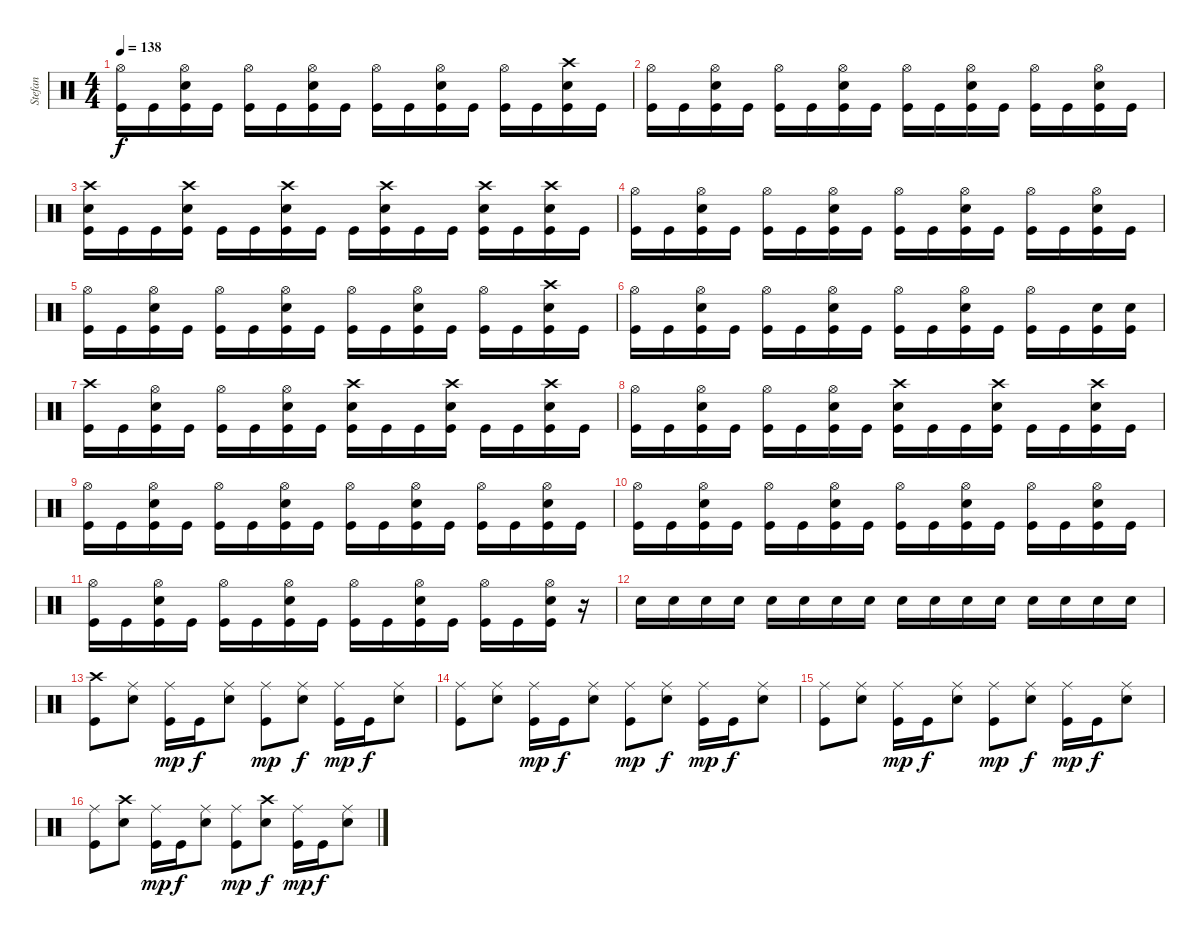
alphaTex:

\track ("Stefan" "Stefan") {instrument percussion}
\staff {score}
\articulation defaults
\ts (4 4)
\tempo 138
\clef neutral
\ks c
("Hi-Hat (open)" "Kick (hit)").16{dy f} "Kick (hit)".16 ("Hi-Hat (open)" "Snare (hit) 2" "Kick (hit)").16 "Kick (hit)".16 ("Hi-Hat (open)" "Kick (hit)").16 "Kick (hit)".16 ("Hi-Hat (open)" "Snare (hit) 2" "Kick (hit)").16 "Kick (hit)".16 ("Hi-Hat (open)" "Kick (hit)").16 "Kick (hit)".16 ("Hi-Hat (open)" "Snare (hit) 2" "Kick (hit)").16 "Kick (hit)".16 ("Hi-Hat (open)" "Kick (hit)").16 "Kick (hit)".16 ("Crash high (hit)" "Snare (hit) 2" "Kick (hit)").16 "Kick (hit)".16 |
("Hi-Hat (open)" "Kick (hit)").16 "Kick (hit)".16 ("Hi-Hat (open)" "Snare (hit) 2" "Kick (hit)").16 "Kick (hit)".16 ("Hi-Hat (open)" "Kick (hit)").16 "Kick (hit)".16 ("Hi-Hat (open)" "Snare (hit) 2" "Kick (hit)").16 "Kick (hit)".16 ("Hi-Hat (open)" "Kick (hit)").16 "Kick (hit)".16 ("Hi-Hat (open)" "Snare (hit) 2" "Kick (hit)").16 "Kick (hit)".16 ("Hi-Hat (open)" "Kick (hit)").16 "Kick (hit)".16 ("Hi-Hat (open)" "Snare (hit) 2" "Kick (hit)").16 "Kick (hit)".16 |
("Crash high (hit)" "Snare (hit) 2" "Kick (hit)").16 "Kick (hit)".16 "Kick (hit)".16 ("Crash high (hit)" "Snare (hit) 2" "Kick (hit)").16 "Kick (hit)".16 "Kick (hit)".16 ("Crash high (hit)" "Snare (hit) 2" "Kick (hit)").16 "Kick (hit)".16 "Kick (hit)".16 ("Crash high (hit)" "Snare (hit) 2" "Kick (hit)").16 "Kick (hit)".16 "Kick (hit)".16 ("Crash high (hit)" "Snare (hit) 2" "Kick (hit)").16 "Kick (hit)".16 ("Crash high (hit)" "Snare (hit) 2" "Kick (hit)").16 "Kick (hit)".16 |
("Hi-Hat (open)" "Kick (hit)").16 "Kick (hit)".16 ("Hi-Hat (open)" "Snare (hit) 2" "Kick (hit)").16 "Kick (hit)".16 ("Hi-Hat (open)" "Kick (hit)").16 "Kick (hit)".16 ("Hi-Hat (open)" "Snare (hit) 2" "Kick (hit)").16 "Kick (hit)".16 ("Hi-Hat (open)" "Kick (hit)").16 "Kick (hit)".16 ("Hi-Hat (open)" "Snare (hit) 2" "Kick (hit)").16 "Kick (hit)".16 ("Hi-Hat (open)" "Kick (hit)").16 "Kick (hit)".16 ("Hi-Hat (open)" "Snare (hit) 2" "Kick (hit)").16 "Kick (hit)".16 |
("Hi-Hat (open)" "Kick (hit)").16 "Kick (hit)".16 ("Hi-Hat (open)" "Snare (hit) 2" "Kick (hit)").16 "Kick (hit)".16 ("Hi-Hat (open)" "Kick (hit)").16 "Kick (hit)".16 ("Hi-Hat (open)" "Snare (hit) 2" "Kick (hit)").16 "Kick (hit)".16 ("Hi-Hat (open)" "Kick (hit)").16 "Kick (hit)".16 ("Hi-Hat (open)" "Snare (hit) 2" "Kick (hit)").16 "Kick (hit)".16 ("Hi-Hat (open)" "Kick (hit)").16 "Kick (hit)".16 ("Crash high (hit)" "Snare (hit) 2" "Kick (hit)").16 "Kick (hit)".16 |
("Hi-Hat (open)" "Kick (hit)").16 "Kick (hit)".16 ("Hi-Hat (open)" "Snare (hit) 2" "Kick (hit)").16 "Kick (hit)".16 ("Hi-Hat (open)" "Kick (hit)").16 "Kick (hit)".16 ("Hi-Hat (open)" "Snare (hit) 2" "Kick (hit)").16 "Kick (hit)".16 ("Hi-Hat (open)" "Kick (hit)").16 "Kick (hit)".16 ("Hi-Hat (open)" "Snare (hit) 2" "Kick (hit)").16 "Kick (hit)".16 ("Hi-Hat (open)" "Kick (hit)").16 "Kick (hit)".16 ("Snare (hit) 2" "Kick (hit)").16 ("Snare (hit) 2" "Kick (hit)").16 |
("Crash high (hit)" "Kick (hit)").16 "Kick (hit)".16 ("Hi-Hat (open)" "Snare (hit) 2" "Kick (hit)").16 "Kick (hit)".16 ("Hi-Hat (open)" "Kick (hit)").16 "Kick (hit)".16 ("Hi-Hat (open)" "Snare (hit) 2" "Kick (hit)").16 "Kick (hit)".16 ("Crash high (hit)" "Snare (hit) 2" "Kick (hit)").16 "Kick (hit)".16 "Kick (hit)".16 ("Crash high (hit)" "Snare (hit) 2" "Kick (hit)").16 "Kick (hit)".16 "Kick (hit)".16 ("Crash high (hit)" "Snare (hit) 2" "Kick (hit)").16 "Kick (hit)".16 |
("Hi-Hat (open)" "Kick (hit)").16 "Kick (hit)".16 ("Hi-Hat (open)" "Snare (hit) 2" "Kick (hit)").16 "Kick (hit)".16 ("Hi-Hat (open)" "Kick (hit)").16 "Kick (hit)".16 ("Hi-Hat (open)" "Snare (hit) 2" "Kick (hit)").16 "Kick (hit)".16 ("Crash high (hit)" "Snare (hit) 2" "Kick (hit)").16 "Kick (hit)".16 "Kick (hit)".16 ("Crash high (hit)" "Snare (hit) 2" "Kick (hit)").16 "Kick (hit)".16 "Kick (hit)".16 ("Crash high (hit)" "Snare (hit) 2" "Kick (hit)").16 "Kick (hit)".16 |
("Hi-Hat (open)" "Kick (hit)").16 "Kick (hit)".16 ("Hi-Hat (open)" "Snare (hit) 2" "Kick (hit)").16 "Kick (hit)".16 ("Hi-Hat (open)" "Kick (hit)").16 "Kick (hit)".16 ("Hi-Hat (open)" "Snare (hit) 2" "Kick (hit)").16 "Kick (hit)".16 ("Hi-Hat (open)" "Kick (hit)").16 "Kick (hit)".16 ("Hi-Hat (open)" "Snare (hit) 2" "Kick (hit)").16 "Kick (hit)".16 ("Hi-Hat (open)" "Kick (hit)").16 "Kick (hit)".16 ("Hi-Hat (open)" "Snare (hit) 2" "Kick (hit)").16 "Kick (hit)".16 |
("Hi-Hat (open)" "Kick (hit)").16 "Kick (hit)".16 ("Hi-Hat (open)" "Snare (hit) 2" "Kick (hit)").16 "Kick (hit)".16 ("Hi-Hat (open)" "Kick (hit)").16 "Kick (hit)".16 ("Hi-Hat (open)" "Snare (hit) 2" "Kick (hit)").16 "Kick (hit)".16 ("Hi-Hat (open)" "Kick (hit)").16 "Kick (hit)".16 ("Hi-Hat (open)" "Snare (hit) 2" "Kick (hit)").16 "Kick (hit)".16 ("Hi-Hat (open)" "Kick (hit)").16 "Kick (hit)".16 ("Hi-Hat (open)" "Snare (hit) 2" "Kick (hit)").16 "Kick (hit)".16 |
("Hi-Hat (open)" "Kick (hit)").16 "Kick (hit)".16 ("Hi-Hat (open)" "Snare (hit) 2" "Kick (hit)").16 "Kick (hit)".16 ("Hi-Hat (open)" "Kick (hit)").16 "Kick (hit)".16 ("Hi-Hat (open)" "Snare (hit) 2" "Kick (hit)").16 "Kick (hit)".16 ("Hi-Hat (open)" "Kick (hit)").16 "Kick (hit)".16 ("Hi-Hat (open)" "Snare (hit) 2" "Kick (hit)").16 "Kick (hit)".16 ("Hi-Hat (open)" "Kick (hit)").16 "Kick (hit)".16 ("Hi-Hat (open)" "Snare (hit) 2" "Kick (hit)").16 r.16 |
"Snare (hit) 2".16 "Snare (hit) 2".16 "Snare (hit) 2".16 "Snare (hit) 2".16 "Snare (hit) 2".16 "Snare (hit) 2".16 "Snare (hit) 2".16 "Snare (hit) 2".16 "Snare (hit) 2".16 "Snare (hit) 2".16 "Snare (hit) 2".16 "Snare (hit) 2".16 "Snare (hit) 2".16 "Snare (hit) 2".16 "Snare (hit) 2".16 "Snare (hit) 2".16 |
("Kick (hit)" "Crash high (hit)").8 ("Ride (middle)" "Snare (hit) 2").8 ("Ride (middle)" "Kick (hit)").16{dy mp} "Kick (hit)".16{dy f} ("Ride (middle)" "Snare (hit) 2").8 ("Ride (middle)" "Kick (hit)").8{dy mp} ("Ride (middle)" "Snare (hit) 2").8{dy f} ("Ride (middle)" "Kick (hit)").16{dy mp} "Kick (hit)".16{dy f} ("Ride (middle)" "Snare (hit) 2").8 |
("Ride (middle)" "Kick (hit)").8 ("Ride (middle)" "Snare (hit) 2").8 ("Ride (middle)" "Kick (hit)").16{dy mp} "Kick (hit)".16{dy f} ("Ride (middle)" "Snare (hit) 2").8 ("Ride (middle)" "Kick (hit)").8{dy mp} ("Ride (middle)" "Snare (hit) 2").8{dy f} ("Ride (middle)" "Kick (hit)").16{dy mp} "Kick (hit)".16{dy f} ("Ride (middle)" "Snare (hit) 2").8 |
("Ride (middle)" "Kick (hit)").8 ("Ride (middle)" "Snare (hit) 2").8 ("Ride (middle)" "Kick (hit)").16{dy mp} "Kick (hit)".16{dy f} ("Ride (middle)" "Snare (hit) 2").8 ("Ride (middle)" "Kick (hit)").8{dy mp} ("Ride (middle)" "Snare (hit) 2").8{dy f} ("Ride (middle)" "Kick (hit)").16{dy mp} "Kick (hit)".16{dy f} ("Ride (middle)" "Snare (hit) 2").8 |
("Ride (middle)" "Kick (hit)").8 ("Snare (hit) 2" "Crash high (hit)").8 ("Ride (middle)" "Kick (hit)").16{dy mp} "Kick (hit)".16{dy f} ("Ride (middle)" "Snare (hit) 2").8 ("Ride (middle)" "Kick (hit)").8{dy mp} ("Snare (hit) 2" "Crash high (hit)").8{dy f} ("Ride (middle)" "Kick (hit)").16{dy mp} "Kick (hit)".16{dy f} ("Ride (middle)" "Snare (hit) 2").8
